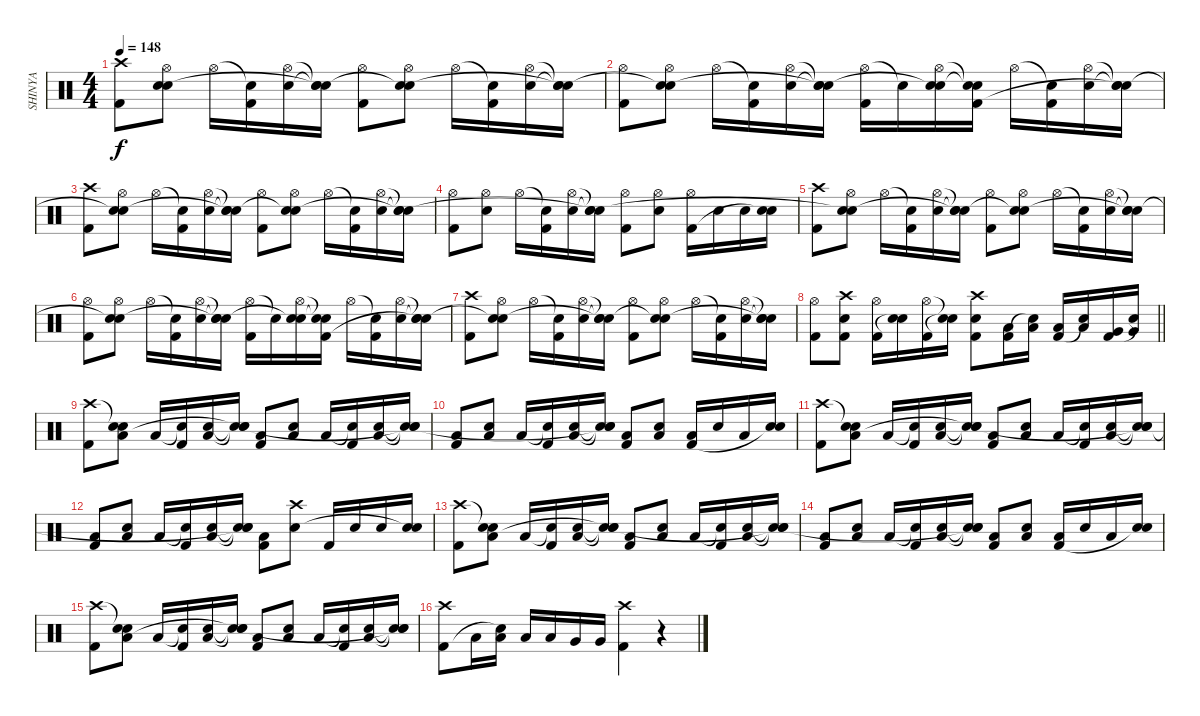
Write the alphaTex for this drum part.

\track ("SHINYA" "SHINYA") {instrument percussion}
\staff {score}
\articulation defaults
\ts (4 4)
\tempo 148
\clef neutral
\ks c
("Crash high (hit)" "Kick (hit) 2").8{dy f} ("Hi-Hat (open)" "Electric Snare (hit)" "Snare (hit)"{t}).8 "Hi-Hat (open)".16 ("Snare (hit)"{t} "Kick (hit) 2").16 ("Hi-Hat (open)" "Electric Snare (hit)").16 ("Snare (hit)"{t} "Electric Snare (hit)"{t} "Snare (hit)"{t}).16 ("Hi-Hat (open)" "Kick (hit) 2").8 ("Hi-Hat (open)" "Electric Snare (hit)" "Snare (hit)"{t}).8 "Hi-Hat (open)".16 ("Snare (hit)"{t} "Kick (hit) 2").16 ("Hi-Hat (open)" "Electric Snare (hit)").16 ("Snare (hit)"{t} "Electric Snare (hit)"{t} "Snare (hit)"{t}).16 |
("Hi-Hat (open)" "Kick (hit) 2").8 ("Hi-Hat (open)" "Electric Snare (hit)" "Snare (hit)"{t}).8 "Hi-Hat (open)".16 ("Snare (hit)"{t} "Kick (hit) 2").16 ("Hi-Hat (open)" "Electric Snare (hit)").16 ("Snare (hit)"{t} "Electric Snare (hit)"{t} "Snare (hit)"{t}).16 ("Hi-Hat (open)" "Kick (hit) 2").16 "Snare (hit)"{t}.16 ("Hi-Hat (open)" "Electric Snare (hit)" "Snare (hit)"{t}).16 ("Snare (hit)"{t} "Snare (hit)"{t} "Kick (hit) 2").16 "Hi-Hat (open)".16 ("Snare (hit)"{t} "Kick (hit) 2").16 ("Hi-Hat (open)" "Electric Snare (hit)").16 ("Snare (hit)"{t} "Electric Snare (hit)"{t} "Snare (hit)"{t}).16 |
("Crash high (hit)" "Kick (hit) 2").8 ("Hi-Hat (open)" "Electric Snare (hit)" "Snare (hit)"{t}).8 "Hi-Hat (open)".16 ("Snare (hit)"{t} "Kick (hit) 2").16 ("Hi-Hat (open)" "Electric Snare (hit)").16 ("Snare (hit)"{t} "Electric Snare (hit)"{t} "Snare (hit)"{t}).16 ("Hi-Hat (open)" "Kick (hit) 2").8 ("Hi-Hat (open)" "Electric Snare (hit)" "Snare (hit)"{t}).8 "Hi-Hat (open)".16 ("Snare (hit)"{t} "Kick (hit) 2").16 ("Hi-Hat (open)" "Electric Snare (hit)").16 ("Snare (hit)"{t} "Electric Snare (hit)"{t} "Snare (hit)"{t}).16 |
("Hi-Hat (open)" "Kick (hit) 2").8 ("Hi-Hat (open)" "Electric Snare (hit)").8 "Hi-Hat (open)".16 ("Snare (hit)"{t} "Kick (hit) 2").16 ("Hi-Hat (open)" "Electric Snare (hit)").16 ("Snare (hit)"{t} "Electric Snare (hit)"{t} "Snare (hit)"{t}).16 ("Hi-Hat (open)" "Kick (hit) 2").8 ("Hi-Hat (open)" "Electric Snare (hit)").8 ("Hi-Hat (open)" "Kick (hit) 2").16 "Electric Snare (hit)".16 "Electric Snare (hit)".16 ("Electric Snare (hit)" "Snare (hit)"{t}).16 |
("Crash high (hit)" "Kick (hit) 2").8 ("Hi-Hat (open)" "Electric Snare (hit)" "Snare (hit)"{t}).8 "Hi-Hat (open)".16 ("Snare (hit)"{t} "Kick (hit) 2").16 ("Hi-Hat (open)" "Electric Snare (hit)").16 ("Snare (hit)"{t} "Electric Snare (hit)"{t} "Snare (hit)"{t}).16 ("Hi-Hat (open)" "Kick (hit) 2").8 ("Hi-Hat (open)" "Electric Snare (hit)" "Snare (hit)"{t}).8 "Hi-Hat (open)".16 ("Snare (hit)"{t} "Kick (hit) 2").16 ("Hi-Hat (open)" "Electric Snare (hit)").16 ("Snare (hit)"{t} "Electric Snare (hit)"{t} "Snare (hit)"{t}).16 |
("Hi-Hat (open)" "Kick (hit) 2").8 ("Hi-Hat (open)" "Electric Snare (hit)" "Snare (hit)"{t}).8 "Hi-Hat (open)".16 ("Snare (hit)"{t} "Kick (hit) 2").16 ("Hi-Hat (open)" "Electric Snare (hit)").16 ("Snare (hit)"{t} "Electric Snare (hit)"{t} "Snare (hit)"{t}).16 ("Hi-Hat (open)" "Kick (hit) 2").16 "Snare (hit)"{t}.16 ("Hi-Hat (open)" "Electric Snare (hit)" "Snare (hit)"{t}).16 ("Snare (hit)"{t} "Snare (hit)"{t} "Kick (hit) 2").16 "Hi-Hat (open)".16 ("Snare (hit)"{t} "Kick (hit) 2").16 ("Hi-Hat (open)" "Electric Snare (hit)").16 ("Snare (hit)"{t} "Electric Snare (hit)"{t} "Snare (hit)"{t}).16 |
("Crash high (hit)" "Kick (hit) 2").8 ("Hi-Hat (open)" "Electric Snare (hit)" "Snare (hit)"{t}).8 "Hi-Hat (open)".16 ("Snare (hit)"{t} "Kick (hit) 2").16 ("Hi-Hat (open)" "Electric Snare (hit)").16 ("Snare (hit)"{t} "Electric Snare (hit)"{t} "Snare (hit)"{t}).16 ("Hi-Hat (open)" "Kick (hit) 2").8 ("Hi-Hat (open)" "Electric Snare (hit)" "Snare (hit)"{t}).8 "Hi-Hat (open)".16 ("Snare (hit)"{t} "Kick (hit) 2").16 ("Hi-Hat (open)" "Electric Snare (hit)").16 ("Snare (hit)"{t} "Electric Snare (hit)"{t} "Snare (hit)"{t}).16 |
\barLineRight lightlight
("Hi-Hat (open)" "Kick (hit) 2").8 ("Crash high (hit)" "Electric Snare (hit)" "Kick (hit) 2").8 ("Hi-Hat (open)" "Kick (hit) 2").16 ("Electric Snare (hit)" "Snare (hit)"{t}).16 ("Hi-Hat (open)" "Kick (hit) 2").16 ("Snare (hit)"{t} "Snare (hit)"{t}).16 ("Crash high (hit)" "Electric Snare (hit)" "Kick (hit) 2").8 ("Low Tom (hit)" "Kick (hit) 2").16 ("Low Tom (hit)" "Snare (hit)"{t}).16 ("Low Tom (hit)" "Kick (hit) 2").16 ("Low Tom (hit)" "Snare (hit)"{t}).16 ("Very Low Tom (hit)" "Kick (hit) 2").16 ("Very Low Tom (hit)" "Snare (hit)"{t}).16 |
("Crash high (hit)" "Kick (hit) 2").8 ("Electric Snare (hit)"{t} "Electric Snare (hit)" "Low Floor Tom (hit)").8 "Low Floor Tom (hit)".16 ("Snare (hit)"{t} "Kick (hit) 2").16 ("Electric Snare (hit)" "Low Floor Tom (hit)").16 ("Snare (hit)"{t} "Snare (hit)"{t} "Snare (hit)"{t}).16 ("Low Floor Tom (hit)" "Kick (hit) 2").8 ("Electric Snare (hit)" "Low Floor Tom (hit)").8 "Low Floor Tom (hit)".16 ("Snare (hit)"{t} "Kick (hit) 2").16 ("Electric Snare (hit)" "Low Floor Tom (hit)").16 ("Snare (hit)"{t} "Snare (hit)"{t} "Snare (hit)"{t}).16 |
("Low Floor Tom (hit)" "Kick (hit) 2").8 ("Electric Snare (hit)" "Low Floor Tom (hit)").8 "Low Floor Tom (hit)".16 ("Snare (hit)"{t} "Kick (hit) 2").16 ("Electric Snare (hit)" "Low Floor Tom (hit)").16 ("Snare (hit)"{t} "Snare (hit)"{t} "Snare (hit)"{t}).16 ("Low Floor Tom (hit)" "Kick (hit) 2").8 ("Electric Snare (hit)" "Low Floor Tom (hit)").8 ("Low Floor Tom (hit)" "Kick (hit) 2").16 "Electric Snare (hit)".16 "Low Floor Tom (hit)".16 ("Electric Snare (hit)" "Snare (hit)"{t}).16 |
("Crash high (hit)" "Kick (hit) 2").8 ("Electric Snare (hit)"{t} "Electric Snare (hit)" "Low Floor Tom (hit)").8 "Low Floor Tom (hit)".16 ("Snare (hit)"{t} "Kick (hit) 2").16 ("Electric Snare (hit)" "Low Floor Tom (hit)").16 ("Snare (hit)"{t} "Snare (hit)"{t} "Snare (hit)"{t}).16 ("Low Floor Tom (hit)" "Kick (hit) 2").8 ("Electric Snare (hit)" "Low Floor Tom (hit)").8 "Low Floor Tom (hit)".16 ("Snare (hit)"{t} "Kick (hit) 2").16 ("Electric Snare (hit)" "Low Floor Tom (hit)").16 ("Snare (hit)"{t} "Snare (hit)"{t} "Snare (hit)"{t}).16 |
("Low Floor Tom (hit)" "Kick (hit) 2").8 ("Electric Snare (hit)" "Low Floor Tom (hit)").8 "Low Floor Tom (hit)".16 ("Snare (hit)"{t} "Kick (hit) 2").16 ("Electric Snare (hit)" "Low Floor Tom (hit)").16 ("Snare (hit)"{t} "Snare (hit)"{t} "Snare (hit)"{t}).16 ("Low Floor Tom (hit)" "Kick (hit) 2").8 ("Crash high (hit)" "Electric Snare (hit)").8 "Kick (hit) 2".16 "Electric Snare (hit)".16 "Electric Snare (hit)".16 ("Electric Snare (hit)" "Snare (hit)"{t}).16 |
("Crash high (hit)" "Kick (hit) 2").8 ("Electric Snare (hit)"{t} "Electric Snare (hit)" "Low Floor Tom (hit)").8 "Low Floor Tom (hit)".16 ("Snare (hit)"{t} "Kick (hit) 2").16 ("Electric Snare (hit)" "Low Floor Tom (hit)").16 ("Snare (hit)"{t} "Snare (hit)"{t} "Snare (hit)"{t}).16 ("Low Floor Tom (hit)" "Kick (hit) 2").8 ("Electric Snare (hit)" "Low Floor Tom (hit)").8 "Low Floor Tom (hit)".16 ("Snare (hit)"{t} "Kick (hit) 2").16 ("Electric Snare (hit)" "Low Floor Tom (hit)").16 ("Snare (hit)"{t} "Snare (hit)"{t} "Snare (hit)"{t}).16 |
("Low Floor Tom (hit)" "Kick (hit) 2").8 ("Electric Snare (hit)" "Low Floor Tom (hit)").8 "Low Floor Tom (hit)".16 ("Snare (hit)"{t} "Kick (hit) 2").16 ("Electric Snare (hit)" "Low Floor Tom (hit)").16 ("Snare (hit)"{t} "Snare (hit)"{t} "Snare (hit)"{t}).16 ("Low Floor Tom (hit)" "Kick (hit) 2").8 ("Electric Snare (hit)" "Low Floor Tom (hit)").8 ("Low Floor Tom (hit)" "Kick (hit) 2").16 "Electric Snare (hit)".16 "Low Floor Tom (hit)".16 ("Electric Snare (hit)" "Snare (hit)"{t}).16 |
("Crash high (hit)" "Kick (hit) 2").8 ("Electric Snare (hit)"{t} "Electric Snare (hit)" "Low Floor Tom (hit)").8 "Low Floor Tom (hit)".16 ("Snare (hit)"{t} "Kick (hit) 2").16 ("Electric Snare (hit)" "Low Floor Tom (hit)").16 ("Snare (hit)"{t} "Snare (hit)"{t} "Snare (hit)"{t}).16 ("Low Floor Tom (hit)" "Kick (hit) 2").8 ("Electric Snare (hit)" "Low Floor Tom (hit)").8 "Low Floor Tom (hit)".16 ("Snare (hit)"{t} "Kick (hit) 2").16 ("Electric Snare (hit)" "Low Floor Tom (hit)").16 ("Snare (hit)"{t} "Snare (hit)"{t} "Snare (hit)"{t}).16 |
("Crash high (hit)" "Kick (hit) 2").8 "Low Tom (hit)".16 ("Low Tom (hit)" "Snare (hit)"{t}).16 "Low Tom (hit)".16 "Low Tom (hit)".16 "Very Low Tom (hit)".16 "Very Low Tom (hit)".16 ("Crash high (hit)" "Kick (hit) 2").4 r.4
